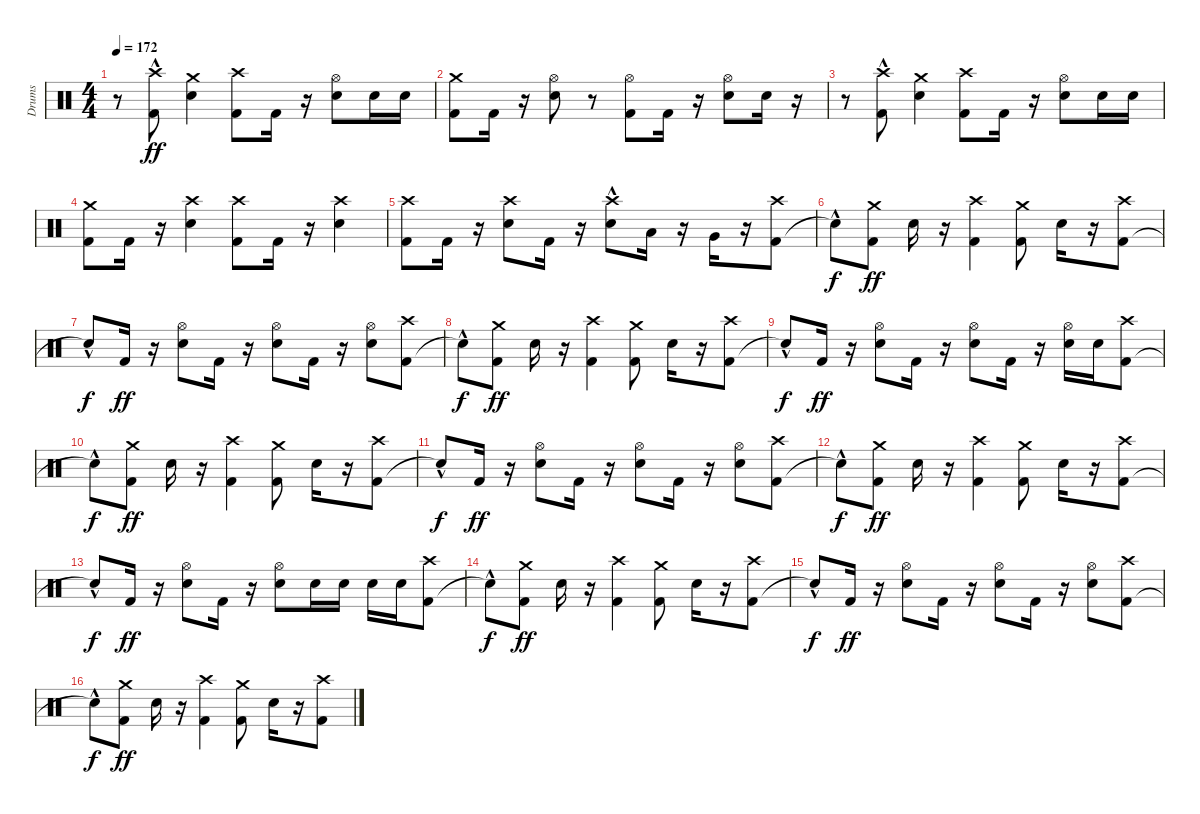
\track ("Drums" "Drums") {instrument percussion}
\staff {score}
\articulation defaults
\ts (4 4)
\tempo 172
\clef neutral
\ks c
r.8{dy ff} ("Kick (hit) 2" "Crash high (hit)"{hac}).8 ("Electric Snare (hit)" "Crash medium (hit)").4 ("Kick (hit) 2" "Crash high (hit)").8 "Kick (hit) 2".16 r.16 ("Electric Snare (hit)" "Hi-Hat (open)").8 "Electric Snare (hit)".16 "Electric Snare (hit)".16 |
("Kick (hit) 2" "Crash medium (hit)").8 "Kick (hit) 2".16 r.16 ("Electric Snare (hit)" "Hi-Hat (open)").8 r.8 ("Kick (hit) 2" "Hi-Hat (open)").8 "Kick (hit) 2".16 r.16 ("Electric Snare (hit)" "Hi-Hat (open)").8 "Electric Snare (hit)".16 r.16 |
r.8 ("Kick (hit) 2" "Crash high (hit)"{hac}).8 ("Electric Snare (hit)" "Crash medium (hit)").4 ("Kick (hit) 2" "Crash high (hit)").8 "Kick (hit) 2".16 r.16 ("Electric Snare (hit)" "Hi-Hat (open)").8 "Electric Snare (hit)".16 "Electric Snare (hit)".16 |
("Kick (hit) 2" "Crash medium (hit)").8 "Kick (hit) 2".16 r.16 ("Electric Snare (hit)" "Crash high (hit)").4 ("Kick (hit) 2" "Crash high (hit)").8 "Kick (hit) 2".16 r.16 ("Electric Snare (hit)" "Crash high (hit)").4 |
("Kick (hit) 2" "Crash high (hit)").8 "Kick (hit) 2".16 r.16 ("Electric Snare (hit)" "Crash high (hit)").8 "Kick (hit) 2".16 r.16 ("Electric Snare (hit)" "Crash high (hit)"{hac}).8 "Low Tom (hit)".16 r.16 "Very Low Tom (hit)".16 r.16 ("Kick (hit) 2" "Crash high (hit)").8 |
"Snare (hit)"{hac t}.8{dy f} ("Kick (hit) 2" "Crash medium (hit)").8{dy ff} "Electric Snare (hit)".16 r.16 ("Kick (hit) 2" "Crash high (hit)").4 ("Kick (hit) 2" "Crash medium (hit)").8 "Electric Snare (hit)".16 r.16 ("Kick (hit) 2" "Crash high (hit)").8 |
"Snare (hit)"{hac t}.8{dy f} "Kick (hit) 2".16{dy ff} r.16 ("Electric Snare (hit)" "Hi-Hat (open)").8 "Kick (hit) 2".16 r.16 ("Electric Snare (hit)" "Hi-Hat (open)").8 "Kick (hit) 2".16 r.16 ("Electric Snare (hit)" "Hi-Hat (open)").8 ("Kick (hit) 2" "Crash high (hit)").8 |
"Snare (hit)"{hac t}.8{dy f} ("Kick (hit) 2" "Crash medium (hit)").8{dy ff} "Electric Snare (hit)".16 r.16 ("Kick (hit) 2" "Crash high (hit)").4 ("Kick (hit) 2" "Crash medium (hit)").8 "Electric Snare (hit)".16 r.16 ("Kick (hit) 2" "Crash high (hit)").8 |
"Snare (hit)"{hac t}.8{dy f} "Kick (hit) 2".16{dy ff} r.16 ("Electric Snare (hit)" "Hi-Hat (open)").8 "Kick (hit) 2".16 r.16 ("Electric Snare (hit)" "Hi-Hat (open)").8 "Kick (hit) 2".16 r.16 ("Electric Snare (hit)" "Hi-Hat (open)").16 "Electric Snare (hit)".16 ("Kick (hit) 2" "Crash high (hit)").8 |
"Snare (hit)"{hac t}.8{dy f} ("Kick (hit) 2" "Crash medium (hit)").8{dy ff} "Electric Snare (hit)".16 r.16 ("Kick (hit) 2" "Crash high (hit)").4 ("Kick (hit) 2" "Crash medium (hit)").8 "Electric Snare (hit)".16 r.16 ("Kick (hit) 2" "Crash high (hit)").8 |
"Snare (hit)"{hac t}.8{dy f} "Kick (hit) 2".16{dy ff} r.16 ("Electric Snare (hit)" "Hi-Hat (open)").8 "Kick (hit) 2".16 r.16 ("Electric Snare (hit)" "Hi-Hat (open)").8 "Kick (hit) 2".16 r.16 ("Electric Snare (hit)" "Hi-Hat (open)").8 ("Kick (hit) 2" "Crash high (hit)").8 |
"Snare (hit)"{hac t}.8{dy f} ("Kick (hit) 2" "Crash medium (hit)").8{dy ff} "Electric Snare (hit)".16 r.16 ("Kick (hit) 2" "Crash high (hit)").4 ("Kick (hit) 2" "Crash medium (hit)").8 "Electric Snare (hit)".16 r.16 ("Kick (hit) 2" "Crash high (hit)").8 |
"Snare (hit)"{hac t}.8{dy f} "Kick (hit) 2".16{dy ff} r.16 ("Electric Snare (hit)" "Hi-Hat (open)").8 "Kick (hit) 2".16 r.16 ("Electric Snare (hit)" "Hi-Hat (open)").8 "Electric Snare (hit)".16 "Electric Snare (hit)".16 "Electric Snare (hit)".16 "Electric Snare (hit)".16 ("Kick (hit) 2" "Crash high (hit)").8 |
"Snare (hit)"{hac t}.8{dy f} ("Kick (hit) 2" "Crash medium (hit)").8{dy ff} "Electric Snare (hit)".16 r.16 ("Kick (hit) 2" "Crash high (hit)").4 ("Kick (hit) 2" "Crash medium (hit)").8 "Electric Snare (hit)".16 r.16 ("Kick (hit) 2" "Crash high (hit)").8 |
"Snare (hit)"{hac t}.8{dy f} "Kick (hit) 2".16{dy ff} r.16 ("Electric Snare (hit)" "Hi-Hat (open)").8 "Kick (hit) 2".16 r.16 ("Electric Snare (hit)" "Hi-Hat (open)").8 "Kick (hit) 2".16 r.16 ("Electric Snare (hit)" "Hi-Hat (open)").8 ("Kick (hit) 2" "Crash high (hit)").8 |
"Snare (hit)"{hac t}.8{dy f} ("Kick (hit) 2" "Crash medium (hit)").8{dy ff} "Electric Snare (hit)".16 r.16 ("Kick (hit) 2" "Crash high (hit)").4 ("Kick (hit) 2" "Crash medium (hit)").8 "Electric Snare (hit)".16 r.16 ("Kick (hit) 2" "Crash high (hit)").8
